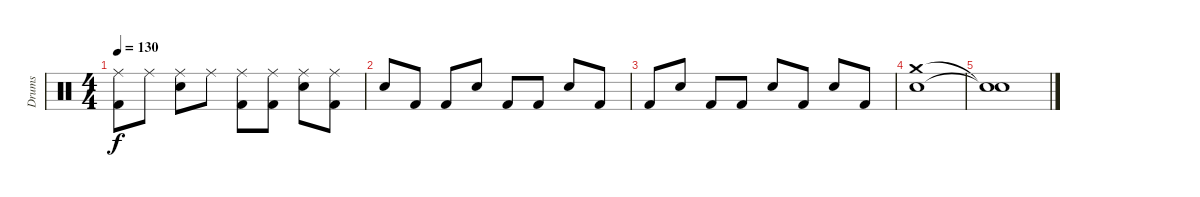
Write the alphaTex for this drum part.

\track ("Drums" "Drums") {instrument percussion}
\staff {score}
\articulation defaults
\ts (4 4)
\tempo 130
\clef neutral
\ks c
("Ride (middle)" "Kick (hit) 2").8{dy f} "Ride (middle)".8 ("Ride (middle)" "Snare (hit) 2").8 "Ride (middle)".8 ("Ride (middle)" "Kick (hit) 2").8 ("Ride (middle)" "Kick (hit) 2").8 ("Ride (middle)" "Snare (hit) 2").8 ("Ride (middle)" "Kick (hit) 2").8 |
"Snare (hit) 2".8 "Kick (hit) 2".8 "Kick (hit) 2".8 "Snare (hit) 2".8 "Kick (hit) 2".8 "Kick (hit) 2".8 "Snare (hit) 2".8 "Kick (hit) 2".8 |
"Kick (hit) 2".8 "Snare (hit) 2".8 "Kick (hit) 2".8 "Kick (hit) 2".8 "Snare (hit) 2".8 "Kick (hit) 2".8 "Snare (hit) 2".8 "Kick (hit) 2".8 |
("Crash medium (hit)" "Snare (hit)").1 |
("Snare (hit)"{t} "Snare (hit)"{t}).1
